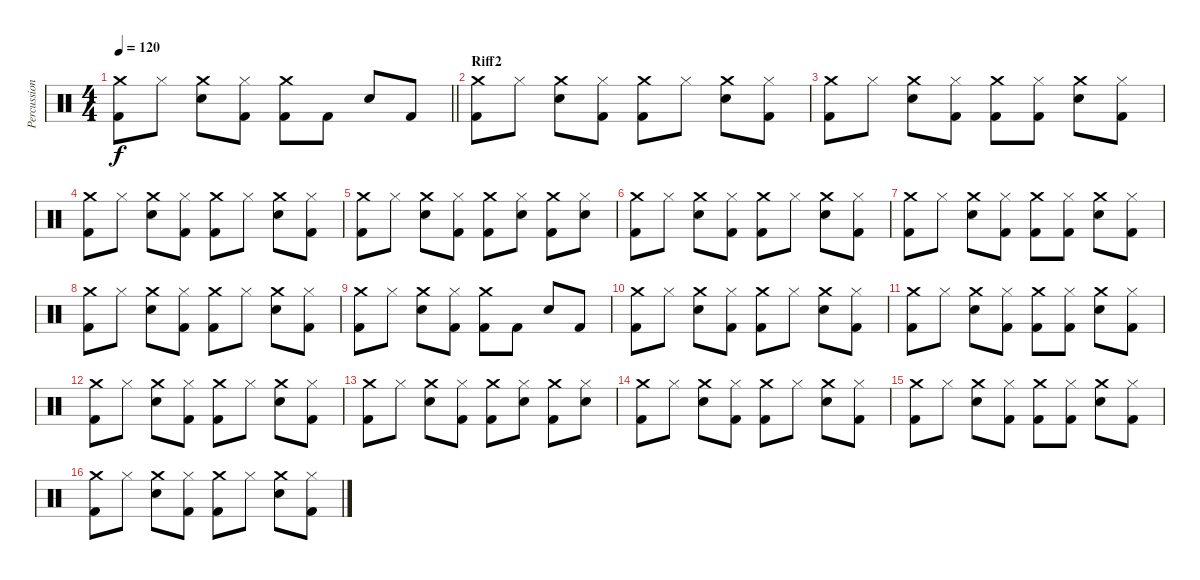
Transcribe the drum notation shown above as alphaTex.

\track ("Percussion" "Percussion") {instrument percussion}
\staff {score}
\articulation defaults
\ts (4 4)
\tempo 120
\clef neutral
\barLineRight lightlight
\ks c
("Crash medium (hit)" "Kick (hit) 2").8{dy f} "Hi-Hat (closed)".8 ("Crash medium (hit)" "Electric Snare (hit)").8 ("Hi-Hat (closed)" "Kick (hit) 2").8 ("Crash medium (hit)" "Kick (hit) 2").8 "Kick (hit) 2".8 "Electric Snare (hit)".8 "Kick (hit) 2".8 |
\section ("" "Riff2")
("Crash medium (hit)" "Kick (hit) 2").8 "Hi-Hat (closed)".8 ("Crash medium (hit)" "Electric Snare (hit)").8 ("Hi-Hat (closed)" "Kick (hit) 2").8 ("Crash medium (hit)" "Kick (hit) 2").8 "Hi-Hat (closed)".8 ("Crash medium (hit)" "Electric Snare (hit)").8 ("Hi-Hat (closed)" "Kick (hit) 2").8 |
("Crash medium (hit)" "Kick (hit) 2").8 "Hi-Hat (closed)".8 ("Crash medium (hit)" "Electric Snare (hit)").8 ("Hi-Hat (closed)" "Kick (hit) 2").8 ("Crash medium (hit)" "Kick (hit) 2").8 ("Hi-Hat (closed)" "Kick (hit) 2").8 ("Crash medium (hit)" "Electric Snare (hit)").8 ("Hi-Hat (closed)" "Kick (hit) 2").8 |
("Crash medium (hit)" "Kick (hit) 2").8 "Hi-Hat (closed)".8 ("Crash medium (hit)" "Electric Snare (hit)").8 ("Hi-Hat (closed)" "Kick (hit) 2").8 ("Crash medium (hit)" "Kick (hit) 2").8 "Hi-Hat (closed)".8 ("Crash medium (hit)" "Electric Snare (hit)").8 ("Hi-Hat (closed)" "Kick (hit) 2").8 |
("Crash medium (hit)" "Kick (hit) 2").8 "Hi-Hat (closed)".8 ("Crash medium (hit)" "Electric Snare (hit)").8 ("Hi-Hat (closed)" "Kick (hit) 2").8 ("Crash medium (hit)" "Kick (hit) 2").8 ("Hi-Hat (closed)" "Electric Snare (hit)").8 ("Crash medium (hit)" "Kick (hit) 2").8 ("Hi-Hat (closed)" "Electric Snare (hit)").8 |
("Crash medium (hit)" "Kick (hit) 2").8 "Hi-Hat (closed)".8 ("Crash medium (hit)" "Electric Snare (hit)").8 ("Hi-Hat (closed)" "Kick (hit) 2").8 ("Crash medium (hit)" "Kick (hit) 2").8 "Hi-Hat (closed)".8 ("Crash medium (hit)" "Electric Snare (hit)").8 ("Hi-Hat (closed)" "Kick (hit) 2").8 |
("Crash medium (hit)" "Kick (hit) 2").8 "Hi-Hat (closed)".8 ("Crash medium (hit)" "Electric Snare (hit)").8 ("Hi-Hat (closed)" "Kick (hit) 2").8 ("Crash medium (hit)" "Kick (hit) 2").8 ("Hi-Hat (closed)" "Kick (hit) 2").8 ("Crash medium (hit)" "Electric Snare (hit)").8 ("Hi-Hat (closed)" "Kick (hit) 2").8 |
("Crash medium (hit)" "Kick (hit) 2").8 "Hi-Hat (closed)".8 ("Crash medium (hit)" "Electric Snare (hit)").8 ("Hi-Hat (closed)" "Kick (hit) 2").8 ("Crash medium (hit)" "Kick (hit) 2").8 "Hi-Hat (closed)".8 ("Crash medium (hit)" "Electric Snare (hit)").8 ("Hi-Hat (closed)" "Kick (hit) 2").8 |
("Crash medium (hit)" "Kick (hit) 2").8 "Hi-Hat (closed)".8 ("Crash medium (hit)" "Electric Snare (hit)").8 ("Hi-Hat (closed)" "Kick (hit) 2").8 ("Crash medium (hit)" "Kick (hit) 2").8 "Kick (hit) 2".8 "Electric Snare (hit)".8 "Kick (hit) 2".8 |
("Crash medium (hit)" "Kick (hit) 2").8 "Hi-Hat (closed)".8 ("Crash medium (hit)" "Electric Snare (hit)").8 ("Hi-Hat (closed)" "Kick (hit) 2").8 ("Crash medium (hit)" "Kick (hit) 2").8 "Hi-Hat (closed)".8 ("Crash medium (hit)" "Electric Snare (hit)").8 ("Hi-Hat (closed)" "Kick (hit) 2").8 |
("Crash medium (hit)" "Kick (hit) 2").8 "Hi-Hat (closed)".8 ("Crash medium (hit)" "Electric Snare (hit)").8 ("Hi-Hat (closed)" "Kick (hit) 2").8 ("Crash medium (hit)" "Kick (hit) 2").8 ("Hi-Hat (closed)" "Kick (hit) 2").8 ("Crash medium (hit)" "Electric Snare (hit)").8 ("Hi-Hat (closed)" "Kick (hit) 2").8 |
("Crash medium (hit)" "Kick (hit) 2").8 "Hi-Hat (closed)".8 ("Crash medium (hit)" "Electric Snare (hit)").8 ("Hi-Hat (closed)" "Kick (hit) 2").8 ("Crash medium (hit)" "Kick (hit) 2").8 "Hi-Hat (closed)".8 ("Crash medium (hit)" "Electric Snare (hit)").8 ("Hi-Hat (closed)" "Kick (hit) 2").8 |
("Crash medium (hit)" "Kick (hit) 2").8 "Hi-Hat (closed)".8 ("Crash medium (hit)" "Electric Snare (hit)").8 ("Hi-Hat (closed)" "Kick (hit) 2").8 ("Crash medium (hit)" "Kick (hit) 2").8 ("Hi-Hat (closed)" "Electric Snare (hit)").8 ("Crash medium (hit)" "Kick (hit) 2").8 ("Hi-Hat (closed)" "Electric Snare (hit)").8 |
("Crash medium (hit)" "Kick (hit) 2").8 "Hi-Hat (closed)".8 ("Crash medium (hit)" "Electric Snare (hit)").8 ("Hi-Hat (closed)" "Kick (hit) 2").8 ("Crash medium (hit)" "Kick (hit) 2").8 "Hi-Hat (closed)".8 ("Crash medium (hit)" "Electric Snare (hit)").8 ("Hi-Hat (closed)" "Kick (hit) 2").8 |
("Crash medium (hit)" "Kick (hit) 2").8 "Hi-Hat (closed)".8 ("Crash medium (hit)" "Electric Snare (hit)").8 ("Hi-Hat (closed)" "Kick (hit) 2").8 ("Crash medium (hit)" "Kick (hit) 2").8 ("Hi-Hat (closed)" "Kick (hit) 2").8 ("Crash medium (hit)" "Electric Snare (hit)").8 ("Hi-Hat (closed)" "Kick (hit) 2").8 |
("Crash medium (hit)" "Kick (hit) 2").8 "Hi-Hat (closed)".8 ("Crash medium (hit)" "Electric Snare (hit)").8 ("Hi-Hat (closed)" "Kick (hit) 2").8 ("Crash medium (hit)" "Kick (hit) 2").8 "Hi-Hat (closed)".8 ("Crash medium (hit)" "Electric Snare (hit)").8 ("Hi-Hat (closed)" "Kick (hit) 2").8
